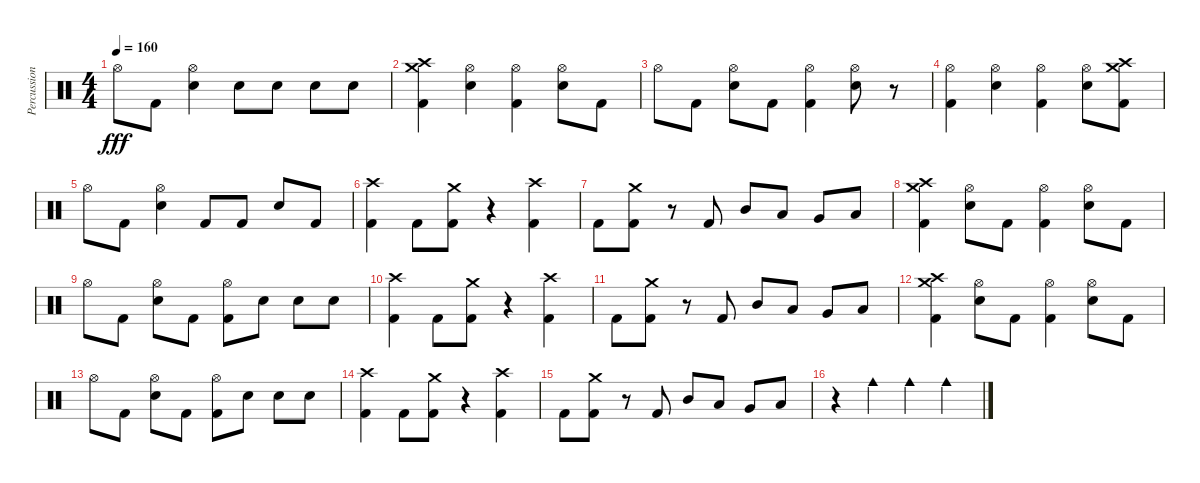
\track ("Percussion" "Percussion") {instrument percussion}
\staff {score}
\articulation defaults
\ts (4 4)
\tempo 160
\clef neutral
\ks c "Hi-Hat (open)".8{dy fff} "Kick (hit) 2".8
("Hi-Hat (open)" "Snare (hit) 2").4 "Snare (hit) 2".8 "Snare (hit) 2".8 "Snare (hit) 2".8 "Snare (hit) 2".8 |
("Crash medium (hit)" "Crash high (hit)" "Kick (hit) 2").4 ("Hi-Hat (open)" "Snare (hit) 2").4 ("Hi-Hat (open)" "Kick (hit) 2").4 ("Hi-Hat (open)" "Snare (hit) 2").8 "Kick (hit) 2".8 |
"Hi-Hat (open)".8 "Kick (hit) 2".8 ("Hi-Hat (open)" "Snare (hit) 2").8 "Kick (hit) 2".8 ("Hi-Hat (open)" "Kick (hit) 2").4 ("Hi-Hat (open)" "Snare (hit) 2").8 r.8 |
("Hi-Hat (open)" "Kick (hit) 2").4 ("Hi-Hat (open)" "Snare (hit) 2").4 ("Hi-Hat (open)" "Kick (hit) 2").4 ("Hi-Hat (open)" "Snare (hit) 2").8 ("Crash medium (hit)" "Crash high (hit)" "Kick (hit) 2").8 |
"Hi-Hat (open)".8 "Kick (hit) 2".8 ("Hi-Hat (open)" "Snare (hit) 2").4 "Kick (hit) 2".8 "Kick (hit) 2".8 "Snare (hit) 2".8 "Kick (hit) 2".8 |
("Crash high (hit)" "Kick (hit) 2").4 "Kick (hit) 2".8 ("Crash medium (hit)" "Kick (hit) 2").8 r.4 ("Crash high (hit)" "Kick (hit) 2").4 |
"Kick (hit) 2".8 ("Crash medium (hit)" "Kick (hit) 2").8 r.8 "Kick (hit) 2".8 "Mid Tom (hit)".8 "Low Tom (hit)".8 "Very Low Tom (hit)".8 "Low Floor Tom (hit)".8 |
("Crash medium (hit)" "Crash high (hit)" "Kick (hit) 2").4 ("Hi-Hat (open)" "Snare (hit) 2").8 "Kick (hit) 2".8 ("Hi-Hat (open)" "Kick (hit) 2").4 ("Hi-Hat (open)" "Snare (hit) 2").8 "Kick (hit) 2".8 |
"Hi-Hat (open)".8 "Kick (hit) 2".8 ("Hi-Hat (open)" "Snare (hit) 2").8 "Kick (hit) 2".8 ("Hi-Hat (open)" "Kick (hit) 2").8 "Snare (hit) 2".8 "Snare (hit) 2".8 "Snare (hit) 2".8 |
("Crash high (hit)" "Kick (hit) 2").4 "Kick (hit) 2".8 ("Crash medium (hit)" "Kick (hit) 2").8 r.4 ("Crash high (hit)" "Kick (hit) 2").4 |
"Kick (hit) 2".8 ("Crash medium (hit)" "Kick (hit) 2").8 r.8 "Kick (hit) 2".8 "Mid Tom (hit)".8 "Low Tom (hit)".8 "Very Low Tom (hit)".8 "Low Floor Tom (hit)".8 |
("Crash medium (hit)" "Crash high (hit)" "Kick (hit) 2").4 ("Hi-Hat (open)" "Snare (hit) 2").8 "Kick (hit) 2".8 ("Hi-Hat (open)" "Kick (hit) 2").4 ("Hi-Hat (open)" "Snare (hit) 2").8 "Kick (hit) 2".8 |
"Hi-Hat (open)".8 "Kick (hit) 2".8 ("Hi-Hat (open)" "Snare (hit) 2").8 "Kick (hit) 2".8 ("Hi-Hat (open)" "Kick (hit) 2").8 "Snare (hit) 2".8 "Snare (hit) 2".8 "Snare (hit) 2".8 |
("Crash high (hit)" "Kick (hit) 2").4 "Kick (hit) 2".8 ("Crash medium (hit)" "Kick (hit) 2").8 r.4 ("Crash high (hit)" "Kick (hit) 2").4 |
"Kick (hit) 2".8 ("Crash medium (hit)" "Kick (hit) 2").8 r.8 "Kick (hit) 2".8 "Mid Tom (hit)".8 "Low Tom (hit)".8 "Very Low Tom (hit)".8 "Low Floor Tom (hit)".8 |
r.4 "Cowbell medium (hit)".4 "Cowbell medium (hit)".4 "Cowbell medium (hit)".4
